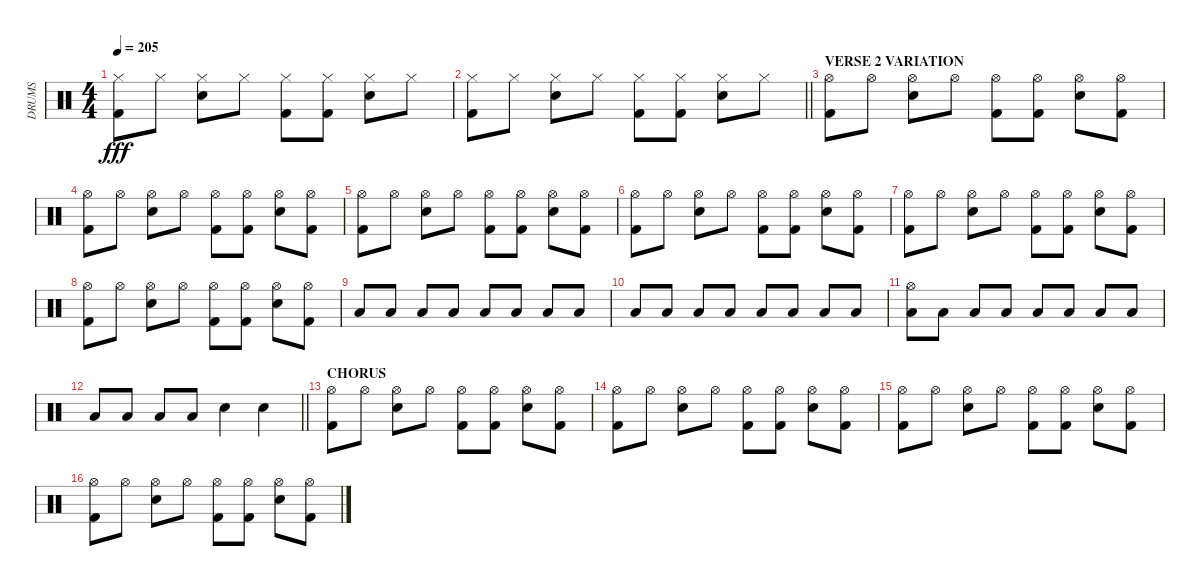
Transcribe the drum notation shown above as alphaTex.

\track ("DRUMS" "DRUMS") {instrument percussion}
\staff {score}
\articulation defaults
\ts (4 4)
\tempo 205
\clef neutral
\ks c
("Hi-Hat (closed)" "Kick (hit) 2").8{dy fff} "Hi-Hat (closed)".8 ("Hi-Hat (closed)" "Electric Snare (hit)").8 "Hi-Hat (closed)".8 ("Hi-Hat (closed)" "Kick (hit) 2").8 ("Hi-Hat (closed)" "Kick (hit) 2").8 ("Hi-Hat (closed)" "Electric Snare (hit)").8 "Hi-Hat (closed)".8 |
\barLineRight lightlight
("Hi-Hat (closed)" "Kick (hit) 2").8 "Hi-Hat (closed)".8 ("Hi-Hat (closed)" "Electric Snare (hit)").8 "Hi-Hat (closed)".8 ("Hi-Hat (closed)" "Kick (hit) 2").8 ("Hi-Hat (closed)" "Kick (hit) 2").8 ("Hi-Hat (closed)" "Electric Snare (hit)").8 "Hi-Hat (closed)".8 |
\section ("" "VERSE 2 VARIATION")
("Hi-Hat (open)" "Kick (hit) 2").8 "Hi-Hat (open)".8 ("Hi-Hat (open)" "Electric Snare (hit)").8 "Hi-Hat (open)".8 ("Hi-Hat (open)" "Kick (hit) 2").8 ("Hi-Hat (open)" "Kick (hit) 2").8 ("Hi-Hat (open)" "Electric Snare (hit)").8 ("Hi-Hat (open)" "Kick (hit) 2").8 |
("Hi-Hat (open)" "Kick (hit) 2").8 "Hi-Hat (open)".8 ("Hi-Hat (open)" "Electric Snare (hit)").8 "Hi-Hat (open)".8 ("Hi-Hat (open)" "Kick (hit) 2").8 ("Hi-Hat (open)" "Kick (hit) 2").8 ("Hi-Hat (open)" "Electric Snare (hit)").8 ("Hi-Hat (open)" "Kick (hit) 2").8 |
("Hi-Hat (open)" "Kick (hit) 2").8 "Hi-Hat (open)".8 ("Hi-Hat (open)" "Electric Snare (hit)").8 "Hi-Hat (open)".8 ("Hi-Hat (open)" "Kick (hit) 2").8 ("Hi-Hat (open)" "Kick (hit) 2").8 ("Hi-Hat (open)" "Electric Snare (hit)").8 ("Hi-Hat (open)" "Kick (hit) 2").8 |
("Hi-Hat (open)" "Kick (hit) 2").8 "Hi-Hat (open)".8 ("Hi-Hat (open)" "Electric Snare (hit)").8 "Hi-Hat (open)".8 ("Hi-Hat (open)" "Kick (hit) 2").8 ("Hi-Hat (open)" "Kick (hit) 2").8 ("Hi-Hat (open)" "Electric Snare (hit)").8 ("Hi-Hat (open)" "Kick (hit) 2").8 |
("Hi-Hat (open)" "Kick (hit) 2").8 "Hi-Hat (open)".8 ("Hi-Hat (open)" "Electric Snare (hit)").8 "Hi-Hat (open)".8 ("Hi-Hat (open)" "Kick (hit) 2").8 ("Hi-Hat (open)" "Kick (hit) 2").8 ("Hi-Hat (open)" "Electric Snare (hit)").8 ("Hi-Hat (open)" "Kick (hit) 2").8 |
("Hi-Hat (open)" "Kick (hit) 2").8 "Hi-Hat (open)".8 ("Hi-Hat (open)" "Electric Snare (hit)").8 "Hi-Hat (open)".8 ("Hi-Hat (open)" "Kick (hit) 2").8 ("Hi-Hat (open)" "Kick (hit) 2").8 ("Hi-Hat (open)" "Electric Snare (hit)").8 ("Hi-Hat (open)" "Kick (hit) 2").8 |
"Low Floor Tom (hit)".8 "Low Floor Tom (hit)".8 "Low Floor Tom (hit)".8 "Low Floor Tom (hit)".8 "Low Floor Tom (hit)".8 "Low Floor Tom (hit)".8 "Low Floor Tom (hit)".8 "Low Floor Tom (hit)".8 |
"Low Floor Tom (hit)".8 "Low Floor Tom (hit)".8 "Low Floor Tom (hit)".8 "Low Floor Tom (hit)".8 "Low Floor Tom (hit)".8 "Low Floor Tom (hit)".8 "Low Floor Tom (hit)".8 "Low Floor Tom (hit)".8 |
("Hi-Hat (open)" "Low Floor Tom (hit)").8 "Low Floor Tom (hit)".8 "Low Floor Tom (hit)".8 "Low Floor Tom (hit)".8 "Low Floor Tom (hit)".8 "Low Floor Tom (hit)".8 "Low Floor Tom (hit)".8 "Low Floor Tom (hit)".8 |
\barLineRight lightlight "Low Floor Tom (hit)".8 "Low Floor Tom (hit)".8 "Low Floor Tom (hit)".8 "Low Floor Tom (hit)".8 "Electric Snare (hit)".4 "Electric Snare (hit)".4
|
\section ("" "CHORUS")
("Hi-Hat (open)" "Kick (hit) 2").8 "Hi-Hat (open)".8 ("Hi-Hat (open)" "Electric Snare (hit)").8 "Hi-Hat (open)".8 ("Hi-Hat (open)" "Kick (hit) 2").8 ("Hi-Hat (open)" "Kick (hit) 2").8 ("Hi-Hat (open)" "Electric Snare (hit)").8 ("Hi-Hat (open)" "Kick (hit) 2").8 |
("Hi-Hat (open)" "Kick (hit) 2").8 "Hi-Hat (open)".8 ("Hi-Hat (open)" "Electric Snare (hit)").8 "Hi-Hat (open)".8 ("Hi-Hat (open)" "Kick (hit) 2").8 ("Hi-Hat (open)" "Kick (hit) 2").8 ("Hi-Hat (open)" "Electric Snare (hit)").8 ("Hi-Hat (open)" "Kick (hit) 2").8 |
("Hi-Hat (open)" "Kick (hit) 2").8 "Hi-Hat (open)".8 ("Hi-Hat (open)" "Electric Snare (hit)").8 "Hi-Hat (open)".8 ("Hi-Hat (open)" "Kick (hit) 2").8 ("Hi-Hat (open)" "Kick (hit) 2").8 ("Hi-Hat (open)" "Electric Snare (hit)").8 ("Hi-Hat (open)" "Kick (hit) 2").8 |
("Hi-Hat (open)" "Kick (hit) 2").8 "Hi-Hat (open)".8 ("Hi-Hat (open)" "Electric Snare (hit)").8 "Hi-Hat (open)".8 ("Hi-Hat (open)" "Kick (hit) 2").8 ("Hi-Hat (open)" "Kick (hit) 2").8 ("Hi-Hat (open)" "Electric Snare (hit)").8 ("Hi-Hat (open)" "Kick (hit) 2").8
